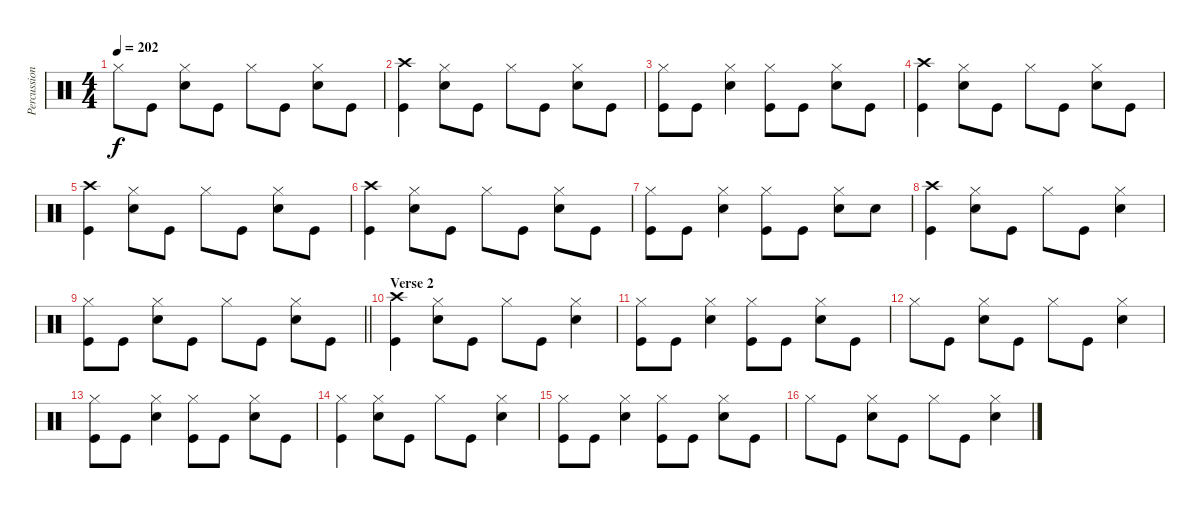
\track ("Percussion" "Percussion") {instrument percussion}
\staff {score}
\articulation defaults
\ts (4 4)
\tempo 202
\clef neutral
\ks c "Hi-Hat (closed)".8{dy f} "Kick (hit)".8
("Hi-Hat (closed)" "Snare (hit) 2").8 "Kick (hit)".8 "Hi-Hat (closed)".8 "Kick (hit)".8 ("Hi-Hat (closed)" "Snare (hit) 2").8 "Kick (hit)".8 |
("Crash high (hit)" "Kick (hit)").4 ("Hi-Hat (closed)" "Snare (hit) 2").8 "Kick (hit)".8 "Hi-Hat (closed)".8 "Kick (hit)".8 ("Hi-Hat (closed)" "Snare (hit) 2").8 "Kick (hit)".8 |
("Hi-Hat (closed)" "Kick (hit)").8 "Kick (hit)".8 ("Hi-Hat (closed)" "Snare (hit) 2").4 ("Hi-Hat (closed)" "Kick (hit)").8 "Kick (hit)".8 ("Hi-Hat (closed)" "Snare (hit) 2").8 "Kick (hit)".8 |
("Crash high (hit)" "Kick (hit)").4 ("Hi-Hat (closed)" "Snare (hit) 2").8 "Kick (hit)".8 "Hi-Hat (closed)".8 "Kick (hit)".8 ("Hi-Hat (closed)" "Snare (hit) 2").8 "Kick (hit)".8 |
("Crash high (hit)" "Kick (hit)").4 ("Hi-Hat (closed)" "Snare (hit) 2").8 "Kick (hit)".8 "Hi-Hat (closed)".8 "Kick (hit)".8 ("Hi-Hat (closed)" "Snare (hit) 2").8 "Kick (hit)".8 |
("Crash high (hit)" "Kick (hit)").4 ("Hi-Hat (closed)" "Snare (hit) 2").8 "Kick (hit)".8 "Hi-Hat (closed)".8 "Kick (hit)".8 ("Hi-Hat (closed)" "Snare (hit) 2").8 "Kick (hit)".8 |
("Hi-Hat (closed)" "Kick (hit)").8 "Kick (hit)".8 ("Hi-Hat (closed)" "Snare (hit) 2").4 ("Hi-Hat (closed)" "Kick (hit)").8 "Kick (hit)".8 ("Hi-Hat (closed)" "Snare (hit) 2").8 "Snare (hit) 2".8 |
("Crash high (hit)" "Kick (hit)").4 ("Hi-Hat (closed)" "Snare (hit) 2").8 "Kick (hit)".8 "Hi-Hat (closed)".8 "Kick (hit)".8 ("Hi-Hat (closed)" "Snare (hit) 2").4 |
\barLineRight lightlight
("Hi-Hat (closed)" "Kick (hit)").8 "Kick (hit)".8 ("Hi-Hat (closed)" "Snare (hit) 2").8 "Kick (hit)".8 "Hi-Hat (closed)".8 "Kick (hit)".8 ("Hi-Hat (closed)" "Snare (hit) 2").8 "Kick (hit)".8 |
\section ("" "Verse 2")
("Crash high (hit)" "Kick (hit)").4 ("Hi-Hat (closed)" "Snare (hit) 2").8 "Kick (hit)".8 "Hi-Hat (closed)".8 "Kick (hit)".8 ("Hi-Hat (closed)" "Snare (hit) 2").4 |
("Hi-Hat (closed)" "Kick (hit)").8 "Kick (hit)".8 ("Hi-Hat (closed)" "Snare (hit) 2").4 ("Hi-Hat (closed)" "Kick (hit)").8 "Kick (hit)".8 ("Hi-Hat (closed)" "Snare (hit) 2").8 "Kick (hit)".8 |
"Hi-Hat (closed)".8 "Kick (hit)".8 ("Hi-Hat (closed)" "Snare (hit) 2").8 "Kick (hit)".8 "Hi-Hat (closed)".8 "Kick (hit)".8 ("Hi-Hat (closed)" "Snare (hit) 2").4 |
("Hi-Hat (closed)" "Kick (hit)").8 "Kick (hit)".8 ("Hi-Hat (closed)" "Snare (hit) 2").4 ("Hi-Hat (closed)" "Kick (hit)").8 "Kick (hit)".8 ("Hi-Hat (closed)" "Snare (hit) 2").8 "Kick (hit)".8 |
("Hi-Hat (closed)" "Kick (hit)").4 ("Hi-Hat (closed)" "Snare (hit) 2").8 "Kick (hit)".8 "Hi-Hat (closed)".8 "Kick (hit)".8 ("Hi-Hat (closed)" "Snare (hit) 2").4 |
("Hi-Hat (closed)" "Kick (hit)").8 "Kick (hit)".8 ("Hi-Hat (closed)" "Snare (hit) 2").4 ("Hi-Hat (closed)" "Kick (hit)").8 "Kick (hit)".8 ("Hi-Hat (closed)" "Snare (hit) 2").8 "Kick (hit)".8 |
"Hi-Hat (closed)".8 "Kick (hit)".8 ("Hi-Hat (closed)" "Snare (hit) 2").8 "Kick (hit)".8 "Hi-Hat (closed)".8 "Kick (hit)".8 ("Hi-Hat (closed)" "Snare (hit) 2").4
